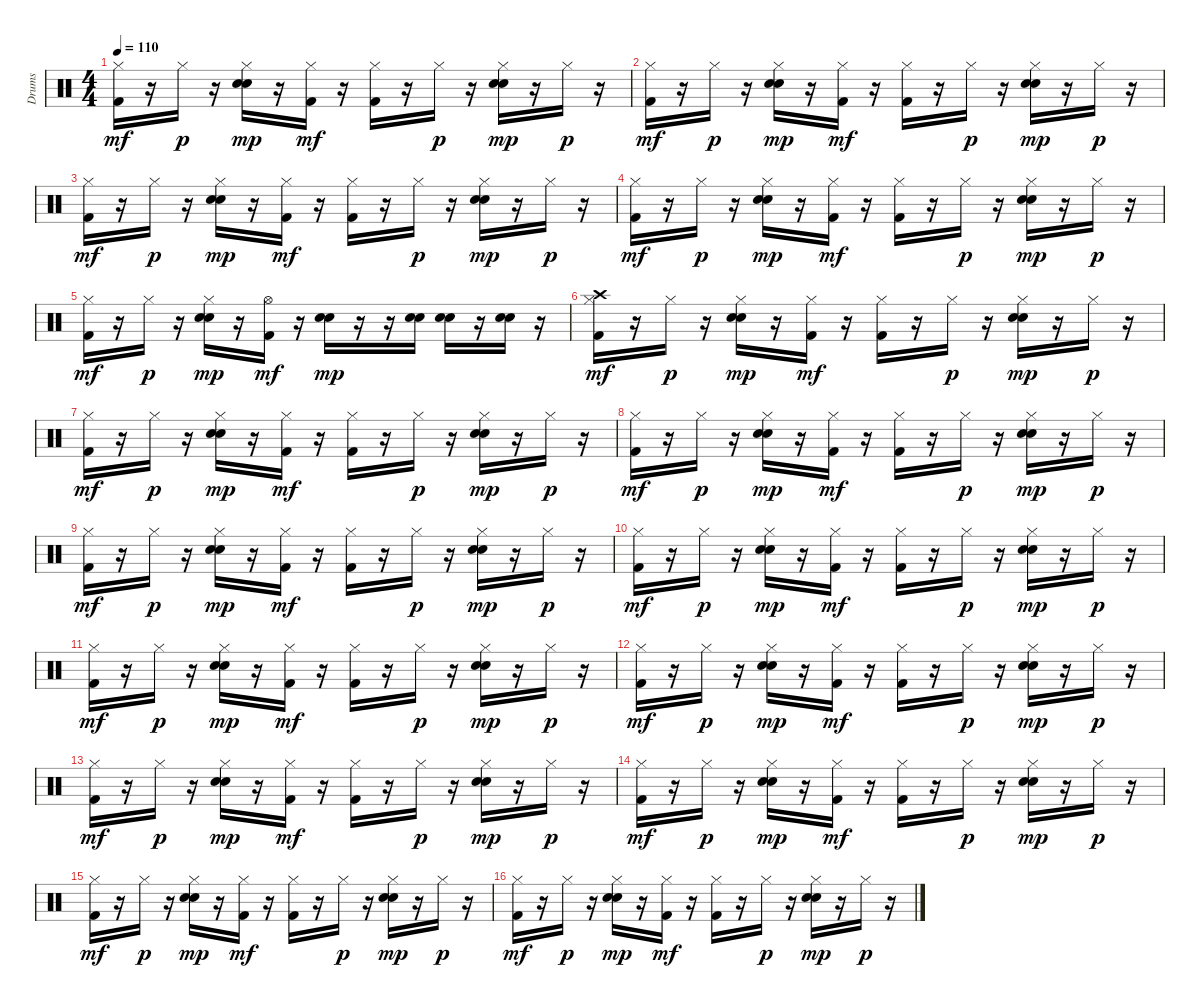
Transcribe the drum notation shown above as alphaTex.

\track ("Drums" "Drums") {instrument percussion}
\staff {score}
\articulation defaults
\ts (4 4)
\tempo 110
\clef neutral
\ks c
("Hi-Hat (closed)" "Kick (hit) 2").16{dy mf} r.16 "Hi-Hat (closed)".16{dy p} r.16 ("Hi-Hat (closed)" "Electric Snare (hit)" "Snare (hit) 2").16{dy mp} r.16 ("Hi-Hat (closed)" "Kick (hit) 2").16{dy mf} r.16 ("Hi-Hat (closed)" "Kick (hit) 2").16 r.16 "Hi-Hat (closed)".16{dy p} r.16 ("Hi-Hat (closed)" "Electric Snare (hit)" "Snare (hit) 2").16{dy mp} r.16 "Hi-Hat (closed)".16{dy p} r.16 |
("Hi-Hat (closed)" "Kick (hit) 2").16{dy mf} r.16 "Hi-Hat (closed)".16{dy p} r.16 ("Hi-Hat (closed)" "Electric Snare (hit)" "Snare (hit) 2").16{dy mp} r.16 ("Hi-Hat (closed)" "Kick (hit) 2").16{dy mf} r.16 ("Hi-Hat (closed)" "Kick (hit) 2").16 r.16 "Hi-Hat (closed)".16{dy p} r.16 ("Hi-Hat (closed)" "Electric Snare (hit)" "Snare (hit) 2").16{dy mp} r.16 "Hi-Hat (closed)".16{dy p} r.16 |
("Hi-Hat (closed)" "Kick (hit) 2").16{dy mf} r.16 "Hi-Hat (closed)".16{dy p} r.16 ("Hi-Hat (closed)" "Electric Snare (hit)" "Snare (hit) 2").16{dy mp} r.16 ("Hi-Hat (closed)" "Kick (hit) 2").16{dy mf} r.16 ("Hi-Hat (closed)" "Kick (hit) 2").16 r.16 "Hi-Hat (closed)".16{dy p} r.16 ("Hi-Hat (closed)" "Electric Snare (hit)" "Snare (hit) 2").16{dy mp} r.16 "Hi-Hat (closed)".16{dy p} r.16 |
("Hi-Hat (closed)" "Kick (hit) 2").16{dy mf} r.16 "Hi-Hat (closed)".16{dy p} r.16 ("Hi-Hat (closed)" "Electric Snare (hit)" "Snare (hit) 2").16{dy mp} r.16 ("Hi-Hat (closed)" "Kick (hit) 2").16{dy mf} r.16 ("Hi-Hat (closed)" "Kick (hit) 2").16 r.16 "Hi-Hat (closed)".16{dy p} r.16 ("Hi-Hat (closed)" "Electric Snare (hit)" "Snare (hit) 2").16{dy mp} r.16 "Hi-Hat (closed)".16{dy p} r.16 |
("Hi-Hat (closed)" "Kick (hit) 2").16{dy mf} r.16 "Hi-Hat (closed)".16{dy p} r.16 ("Hi-Hat (closed)" "Electric Snare (hit)" "Snare (hit) 2").16{dy mp} r.16 ("Hi-Hat (open)" "Kick (hit) 2").16{dy mf} r.16 ("Electric Snare (hit)" "Snare (hit) 2").16{dy mp} r.16 r.16 ("Electric Snare (hit)" "Snare (hit) 2").16 ("Electric Snare (hit)" "Snare (hit) 2").16 r.16 ("Electric Snare (hit)" "Snare (hit) 2").16 r.16 |
("Crash high (hit)" "Hi-Hat (closed)" "Kick (hit) 2").16{dy mf} r.16 "Hi-Hat (closed)".16{dy p} r.16 ("Hi-Hat (closed)" "Electric Snare (hit)" "Snare (hit) 2").16{dy mp} r.16 ("Hi-Hat (closed)" "Kick (hit) 2").16{dy mf} r.16 ("Hi-Hat (closed)" "Kick (hit) 2").16 r.16 "Hi-Hat (closed)".16{dy p} r.16 ("Hi-Hat (closed)" "Electric Snare (hit)" "Snare (hit) 2").16{dy mp} r.16 "Hi-Hat (closed)".16{dy p} r.16 |
("Hi-Hat (closed)" "Kick (hit) 2").16{dy mf} r.16 "Hi-Hat (closed)".16{dy p} r.16 ("Hi-Hat (closed)" "Electric Snare (hit)" "Snare (hit) 2").16{dy mp} r.16 ("Hi-Hat (closed)" "Kick (hit) 2").16{dy mf} r.16 ("Hi-Hat (closed)" "Kick (hit) 2").16 r.16 "Hi-Hat (closed)".16{dy p} r.16 ("Hi-Hat (closed)" "Electric Snare (hit)" "Snare (hit) 2").16{dy mp} r.16 "Hi-Hat (closed)".16{dy p} r.16 |
("Hi-Hat (closed)" "Kick (hit) 2").16{dy mf} r.16 "Hi-Hat (closed)".16{dy p} r.16 ("Hi-Hat (closed)" "Electric Snare (hit)" "Snare (hit) 2").16{dy mp} r.16 ("Hi-Hat (closed)" "Kick (hit) 2").16{dy mf} r.16 ("Hi-Hat (closed)" "Kick (hit) 2").16 r.16 "Hi-Hat (closed)".16{dy p} r.16 ("Hi-Hat (closed)" "Electric Snare (hit)" "Snare (hit) 2").16{dy mp} r.16 "Hi-Hat (closed)".16{dy p} r.16 |
("Hi-Hat (closed)" "Kick (hit) 2").16{dy mf} r.16 "Hi-Hat (closed)".16{dy p} r.16 ("Hi-Hat (closed)" "Electric Snare (hit)" "Snare (hit) 2").16{dy mp} r.16 ("Hi-Hat (closed)" "Kick (hit) 2").16{dy mf} r.16 ("Hi-Hat (closed)" "Kick (hit) 2").16 r.16 "Hi-Hat (closed)".16{dy p} r.16 ("Hi-Hat (closed)" "Electric Snare (hit)" "Snare (hit) 2").16{dy mp} r.16 "Hi-Hat (closed)".16{dy p} r.16 |
("Hi-Hat (closed)" "Kick (hit) 2").16{dy mf} r.16 "Hi-Hat (closed)".16{dy p} r.16 ("Hi-Hat (closed)" "Electric Snare (hit)" "Snare (hit) 2").16{dy mp} r.16 ("Hi-Hat (closed)" "Kick (hit) 2").16{dy mf} r.16 ("Hi-Hat (closed)" "Kick (hit) 2").16 r.16 "Hi-Hat (closed)".16{dy p} r.16 ("Hi-Hat (closed)" "Electric Snare (hit)" "Snare (hit) 2").16{dy mp} r.16 "Hi-Hat (closed)".16{dy p} r.16 |
("Hi-Hat (closed)" "Kick (hit) 2").16{dy mf} r.16 "Hi-Hat (closed)".16{dy p} r.16 ("Hi-Hat (closed)" "Electric Snare (hit)" "Snare (hit) 2").16{dy mp} r.16 ("Hi-Hat (closed)" "Kick (hit) 2").16{dy mf} r.16 ("Hi-Hat (closed)" "Kick (hit) 2").16 r.16 "Hi-Hat (closed)".16{dy p} r.16 ("Hi-Hat (closed)" "Electric Snare (hit)" "Snare (hit) 2").16{dy mp} r.16 "Hi-Hat (closed)".16{dy p} r.16 |
("Hi-Hat (closed)" "Kick (hit) 2").16{dy mf} r.16 "Hi-Hat (closed)".16{dy p} r.16 ("Hi-Hat (closed)" "Electric Snare (hit)" "Snare (hit) 2").16{dy mp} r.16 ("Hi-Hat (closed)" "Kick (hit) 2").16{dy mf} r.16 ("Hi-Hat (closed)" "Kick (hit) 2").16 r.16 "Hi-Hat (closed)".16{dy p} r.16 ("Hi-Hat (closed)" "Electric Snare (hit)" "Snare (hit) 2").16{dy mp} r.16 "Hi-Hat (closed)".16{dy p} r.16 |
("Hi-Hat (closed)" "Kick (hit) 2").16{dy mf} r.16 "Hi-Hat (closed)".16{dy p} r.16 ("Hi-Hat (closed)" "Electric Snare (hit)" "Snare (hit) 2").16{dy mp} r.16 ("Hi-Hat (closed)" "Kick (hit) 2").16{dy mf} r.16 ("Hi-Hat (closed)" "Kick (hit) 2").16 r.16 "Hi-Hat (closed)".16{dy p} r.16 ("Hi-Hat (closed)" "Electric Snare (hit)" "Snare (hit) 2").16{dy mp} r.16 "Hi-Hat (closed)".16{dy p} r.16 |
("Hi-Hat (closed)" "Kick (hit) 2").16{dy mf} r.16 "Hi-Hat (closed)".16{dy p} r.16 ("Hi-Hat (closed)" "Electric Snare (hit)" "Snare (hit) 2").16{dy mp} r.16 ("Hi-Hat (closed)" "Kick (hit) 2").16{dy mf} r.16 ("Hi-Hat (closed)" "Kick (hit) 2").16 r.16 "Hi-Hat (closed)".16{dy p} r.16 ("Hi-Hat (closed)" "Electric Snare (hit)" "Snare (hit) 2").16{dy mp} r.16 "Hi-Hat (closed)".16{dy p} r.16 |
("Hi-Hat (closed)" "Kick (hit) 2").16{dy mf} r.16 "Hi-Hat (closed)".16{dy p} r.16 ("Hi-Hat (closed)" "Electric Snare (hit)" "Snare (hit) 2").16{dy mp} r.16 ("Hi-Hat (closed)" "Kick (hit) 2").16{dy mf} r.16 ("Hi-Hat (closed)" "Kick (hit) 2").16 r.16 "Hi-Hat (closed)".16{dy p} r.16 ("Hi-Hat (closed)" "Electric Snare (hit)" "Snare (hit) 2").16{dy mp} r.16 "Hi-Hat (closed)".16{dy p} r.16 |
("Hi-Hat (closed)" "Kick (hit) 2").16{dy mf} r.16 "Hi-Hat (closed)".16{dy p} r.16 ("Hi-Hat (closed)" "Electric Snare (hit)" "Snare (hit) 2").16{dy mp} r.16 ("Hi-Hat (closed)" "Kick (hit) 2").16{dy mf} r.16 ("Hi-Hat (closed)" "Kick (hit) 2").16 r.16 "Hi-Hat (closed)".16{dy p} r.16 ("Hi-Hat (closed)" "Electric Snare (hit)" "Snare (hit) 2").16{dy mp} r.16 "Hi-Hat (closed)".16{dy p} r.16
